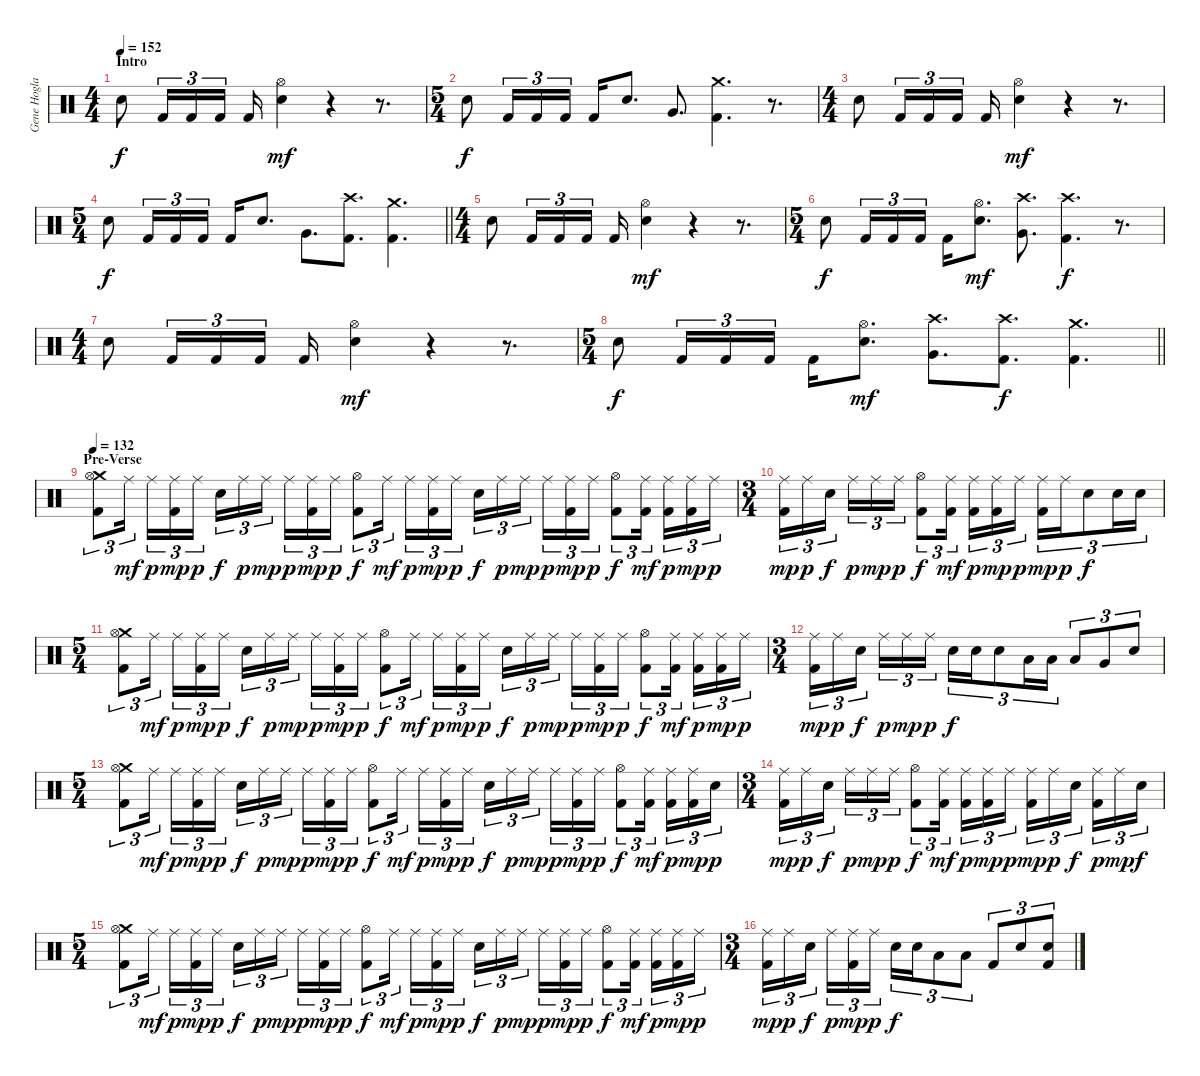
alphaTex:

\track ("Gene Hoglan" "Gene Hogla") {instrument percussion}
\staff {score}
\articulation defaults
\ts (4 4)
\section ("" "Intro")
\tempo 152
\clef neutral
\ks c "Electric Snare (hit)".8{dy f} "Kick (hit) 2".16{tu (3 2)} "Kick (hit) 2".16{tu (3 2)} "Kick (hit) 2".16{tu (3 2)} "Kick (hit) 2".16
("Hi-Hat (open)" "Electric Snare (hit)").4{dy mf} r.4 r.8{d} |
\ts (5 4)
"Electric Snare (hit)".8{dy f} "Kick (hit) 2".16{tu (3 2)} "Kick (hit) 2".16{tu (3 2)} "Kick (hit) 2".16{tu (3 2)} "Kick (hit) 2".16 "Electric Snare (hit)".8{d} "Very Low Tom (hit)".8{d} ("Crash medium (hit)" "Kick (hit) 2").4{d} r.8{d} |
\ts (4 4)
"Electric Snare (hit)".8 "Kick (hit) 2".16{tu (3 2)} "Kick (hit) 2".16{tu (3 2)} "Kick (hit) 2".16{tu (3 2)} "Kick (hit) 2".16 ("Hi-Hat (open)" "Electric Snare (hit)").4{dy mf} r.4 r.8{d} |
\ts (5 4)
\barLineRight lightlight "Electric Snare (hit)".8{dy f} "Kick (hit) 2".16{tu (3 2)} "Kick (hit) 2".16{tu (3 2)} "Kick (hit) 2".16{tu (3 2)} "Kick (hit) 2".16 "Electric Snare (hit)".8{d} "Very Low Tom (hit)".8{d}
("Crash high (hit)" "Kick (hit) 2").8{d} ("Crash medium (hit)" "Kick (hit) 2").4{d} |
\ts (4 4)
"Electric Snare (hit)".8 "Kick (hit) 2".16{tu (3 2)} "Kick (hit) 2".16{tu (3 2)} "Kick (hit) 2".16{tu (3 2)} "Kick (hit) 2".16 ("Hi-Hat (open)" "Electric Snare (hit)").4{dy mf} r.4 r.8{d} |
\ts (5 4)
"Electric Snare (hit)".8{dy f} "Kick (hit) 2".16{tu (3 2)} "Kick (hit) 2".16{tu (3 2)} "Kick (hit) 2".16{tu (3 2)} "Kick (hit) 2".16 ("Hi-Hat (open)" "Electric Snare (hit)").8{d dy mf} ("Crash high (hit)" "Very Low Tom (hit)").8{d} ("Crash high (hit)" "Kick (hit) 2").4{d dy f} r.8{d} |
\ts (4 4)
"Electric Snare (hit)".8 "Kick (hit) 2".16{tu (3 2)} "Kick (hit) 2".16{tu (3 2)} "Kick (hit) 2".16{tu (3 2)} "Kick (hit) 2".16 ("Hi-Hat (open)" "Electric Snare (hit)").4{dy mf} r.4 r.8{d} |
\ts (5 4)
\barLineRight lightlight "Electric Snare (hit)".8{dy f} "Kick (hit) 2".16{tu (3 2)} "Kick (hit) 2".16{tu (3 2)} "Kick (hit) 2".16{tu (3 2)} "Kick (hit) 2".16
("Hi-Hat (open)" "Electric Snare (hit)").8{d dy mf} ("Crash high (hit)" "Very Low Tom (hit)").8{d} ("Crash high (hit)" "Kick (hit) 2").8{d dy f} ("Crash medium (hit)" "Kick (hit) 2").4{d} |
\section ("" "Pre-Verse")
\tempo 132
("Crash medium (hit)" "Hi-Hat (open)" "Kick (hit) 2").8{tu (3 2)} "Ride (middle)".16{tu (3 2) dy mf beam splitsecondary} "Ride (middle)".16{tu (3 2) dy p} ("Ride (middle)" "Kick (hit) 2").16{tu (3 2) dy mp} "Ride (middle)".16{tu (3 2) dy p} "Electric Snare (hit)".16{tu (3 2) dy f} "Ride (middle)".16{tu (3 2) dy p} "Ride (middle)".16{tu (3 2) dy mp beam splitsecondary} "Ride (middle)".16{tu (3 2) dy p} ("Ride (middle)" "Kick (hit) 2").16{tu (3 2) dy mp} "Ride (middle)".16{tu (3 2) dy p} ("Hi-Hat (open)" "Kick (hit) 2").8{tu (3 2) dy f} "Ride (middle)".16{tu (3 2) dy mf beam splitsecondary} "Ride (middle)".16{tu (3 2) dy p} ("Ride (middle)" "Kick (hit) 2").16{tu (3 2) dy mp} "Ride (middle)".16{tu (3 2) dy p} "Electric Snare (hit)".16{tu (3 2) dy f} "Ride (middle)".16{tu (3 2) dy p} "Ride (middle)".16{tu (3 2) dy mp beam splitsecondary} "Ride (middle)".16{tu (3 2) dy p} ("Ride (middle)" "Kick (hit) 2").16{tu (3 2) dy mp} "Ride (middle)".16{tu (3 2) dy p} ("Hi-Hat (open)" "Kick (hit) 2").8{tu (3 2) dy f} ("Ride (middle)" "Kick (hit) 2").16{tu (3 2) dy mf beam splitsecondary} ("Ride (middle)" "Kick (hit) 2").16{tu (3 2) dy p} ("Ride (middle)" "Kick (hit) 2").16{tu (3 2) dy mp} "Ride (middle)".16{tu (3 2) dy p} |
\ts (3 4)
("Ride (middle)" "Kick (hit) 2").16{tu (3 2) dy mp} "Ride (middle)".16{tu (3 2) dy p} "Electric Snare (hit)".16{tu (3 2) dy f beam splitsecondary} "Ride (middle)".16{tu (3 2) dy p} "Ride (middle)".16{tu (3 2) dy mp} "Ride (middle)".16{tu (3 2) dy p} ("Hi-Hat (open)" "Kick (hit) 2").8{tu (3 2) dy f} ("Ride (middle)" "Kick (hit) 2").16{tu (3 2) dy mf beam splitsecondary} ("Ride (middle)" "Kick (hit) 2").16{tu (3 2) dy p} ("Ride (middle)" "Kick (hit) 2").16{tu (3 2) dy mp} "Ride (middle)".16{tu (3 2) dy p} ("Ride (middle)" "Kick (hit) 2").16{tu (3 2) dy mp} "Ride (middle)".16{tu (3 2) dy p} "Electric Snare (hit)".8{tu (3 2) dy f} "Electric Snare (hit)".16{tu (3 2)} "Electric Snare (hit)".16{tu (3 2)} |
\ts (5 4)
("Crash medium (hit)" "Hi-Hat (open)" "Kick (hit) 2").8{tu (3 2)} "Ride (middle)".16{tu (3 2) dy mf beam splitsecondary} "Ride (middle)".16{tu (3 2) dy p} ("Ride (middle)" "Kick (hit) 2").16{tu (3 2) dy mp} "Ride (middle)".16{tu (3 2) dy p} "Electric Snare (hit)".16{tu (3 2) dy f} "Ride (middle)".16{tu (3 2) dy p} "Ride (middle)".16{tu (3 2) dy mp beam splitsecondary} "Ride (middle)".16{tu (3 2) dy p} ("Ride (middle)" "Kick (hit) 2").16{tu (3 2) dy mp} "Ride (middle)".16{tu (3 2) dy p} ("Hi-Hat (open)" "Kick (hit) 2").8{tu (3 2) dy f} "Ride (middle)".16{tu (3 2) dy mf beam splitsecondary} "Ride (middle)".16{tu (3 2) dy p} ("Ride (middle)" "Kick (hit) 2").16{tu (3 2) dy mp} "Ride (middle)".16{tu (3 2) dy p} "Electric Snare (hit)".16{tu (3 2) dy f} "Ride (middle)".16{tu (3 2) dy p} "Ride (middle)".16{tu (3 2) dy mp beam splitsecondary} "Ride (middle)".16{tu (3 2) dy p} ("Ride (middle)" "Kick (hit) 2").16{tu (3 2) dy mp} "Ride (middle)".16{tu (3 2) dy p} ("Hi-Hat (open)" "Kick (hit) 2").8{tu (3 2) dy f} ("Ride (middle)" "Kick (hit) 2").16{tu (3 2) dy mf beam splitsecondary} ("Ride (middle)" "Kick (hit) 2").16{tu (3 2) dy p} ("Ride (middle)" "Kick (hit) 2").16{tu (3 2) dy mp} "Ride (middle)".16{tu (3 2) dy p} |
\ts (3 4)
("Ride (middle)" "Kick (hit) 2").16{tu (3 2) dy mp} "Ride (middle)".16{tu (3 2) dy p} "Electric Snare (hit)".16{tu (3 2) dy f beam splitsecondary} "Ride (middle)".16{tu (3 2) dy p} "Ride (middle)".16{tu (3 2) dy mp} "Ride (middle)".16{tu (3 2) dy p} "Electric Snare (hit)".16{tu (3 2) dy f} "Electric Snare (hit)".16{tu (3 2)} "Electric Snare (hit)".8{tu (3 2)} "Low Tom (hit)".16{tu (3 2)} "Low Tom (hit)".16{tu (3 2)} "Low Tom (hit)".8{tu (3 2)} "Very Low Tom (hit)".8{tu (3 2)} "Electric Snare (hit)".8{tu (3 2)} |
\ts (5 4)
("Crash medium (hit)" "Hi-Hat (open)" "Kick (hit) 2").8{tu (3 2)} "Ride (middle)".16{tu (3 2) dy mf beam splitsecondary} "Ride (middle)".16{tu (3 2) dy p} ("Ride (middle)" "Kick (hit) 2").16{tu (3 2) dy mp} "Ride (middle)".16{tu (3 2) dy p} "Electric Snare (hit)".16{tu (3 2) dy f} "Ride (middle)".16{tu (3 2) dy p} "Ride (middle)".16{tu (3 2) dy mp beam splitsecondary} "Ride (middle)".16{tu (3 2) dy p} ("Ride (middle)" "Kick (hit) 2").16{tu (3 2) dy mp} "Ride (middle)".16{tu (3 2) dy p} ("Hi-Hat (open)" "Kick (hit) 2").8{tu (3 2) dy f} "Ride (middle)".16{tu (3 2) dy mf beam splitsecondary} "Ride (middle)".16{tu (3 2) dy p} ("Ride (middle)" "Kick (hit) 2").16{tu (3 2) dy mp} "Ride (middle)".16{tu (3 2) dy p} "Electric Snare (hit)".16{tu (3 2) dy f} "Ride (middle)".16{tu (3 2) dy p} "Ride (middle)".16{tu (3 2) dy mp beam splitsecondary} "Ride (middle)".16{tu (3 2) dy p} ("Ride (middle)" "Kick (hit) 2").16{tu (3 2) dy mp} "Ride (middle)".16{tu (3 2) dy p} ("Hi-Hat (open)" "Kick (hit) 2").8{tu (3 2) dy f} ("Ride (middle)" "Kick (hit) 2").16{tu (3 2) dy mf beam splitsecondary} ("Ride (middle)" "Kick (hit) 2").16{tu (3 2) dy p} ("Ride (middle)" "Kick (hit) 2").16{tu (3 2) dy mp} "Snare (hit)".16{tu (3 2) dy p} |
\ts (3 4)
("Ride (middle)" "Kick (hit) 2").16{tu (3 2) dy mp} "Ride (middle)".16{tu (3 2) dy p} "Electric Snare (hit)".16{tu (3 2) dy f beam splitsecondary} "Ride (middle)".16{tu (3 2) dy p} "Ride (middle)".16{tu (3 2) dy mp} "Ride (middle)".16{tu (3 2) dy p} ("Hi-Hat (open)" "Kick (hit) 2").8{tu (3 2) dy f} ("Ride (middle)" "Kick (hit) 2").16{tu (3 2) dy mf beam splitsecondary} ("Ride (middle)" "Kick (hit) 2").16{tu (3 2) dy p} ("Ride (middle)" "Kick (hit) 2").16{tu (3 2) dy mp} "Ride (middle)".16{tu (3 2) dy p} ("Ride (middle)" "Kick (hit) 2").16{tu (3 2) dy mp} "Ride (middle)".16{tu (3 2) dy p} "Electric Snare (hit)".16{tu (3 2) dy f beam splitsecondary} ("Ride (middle)" "Kick (hit) 2").16{tu (3 2) dy p} "Ride (middle)".16{tu (3 2) dy mp} "Electric Snare (hit)".16{tu (3 2) dy f} |
\ts (5 4)
("Crash medium (hit)" "Hi-Hat (open)" "Kick (hit) 2").8{tu (3 2)} "Ride (middle)".16{tu (3 2) dy mf beam splitsecondary} "Ride (middle)".16{tu (3 2) dy p} ("Ride (middle)" "Kick (hit) 2").16{tu (3 2) dy mp} "Ride (middle)".16{tu (3 2) dy p} "Electric Snare (hit)".16{tu (3 2) dy f} "Ride (middle)".16{tu (3 2) dy p} "Ride (middle)".16{tu (3 2) dy mp beam splitsecondary} "Ride (middle)".16{tu (3 2) dy p} ("Ride (middle)" "Kick (hit) 2").16{tu (3 2) dy mp} "Ride (middle)".16{tu (3 2) dy p} ("Hi-Hat (open)" "Kick (hit) 2").8{tu (3 2) dy f} "Ride (middle)".16{tu (3 2) dy mf beam splitsecondary} "Ride (middle)".16{tu (3 2) dy p} ("Ride (middle)" "Kick (hit) 2").16{tu (3 2) dy mp} "Ride (middle)".16{tu (3 2) dy p} "Electric Snare (hit)".16{tu (3 2) dy f} "Ride (middle)".16{tu (3 2) dy p} "Ride (middle)".16{tu (3 2) dy mp beam splitsecondary} "Ride (middle)".16{tu (3 2) dy p} ("Ride (middle)" "Kick (hit) 2").16{tu (3 2) dy mp} "Ride (middle)".16{tu (3 2) dy p} ("Hi-Hat (open)" "Kick (hit) 2").8{tu (3 2) dy f} ("Ride (middle)" "Kick (hit) 2").16{tu (3 2) dy mf beam splitsecondary} ("Ride (middle)" "Kick (hit) 2").16{tu (3 2) dy p} ("Ride (middle)" "Kick (hit) 2").16{tu (3 2) dy mp} "Ride (middle)".16{tu (3 2) dy p} |
\ts (3 4)
("Ride (middle)" "Kick (hit) 2").16{tu (3 2) dy mp} "Ride (middle)".16{tu (3 2) dy p} "Electric Snare (hit)".16{tu (3 2) dy f beam splitsecondary} "Ride (middle)".16{tu (3 2) dy p} ("Ride (middle)" "Kick (hit) 2").16{tu (3 2) dy mp} "Ride (middle)".16{tu (3 2) dy p} "Electric Snare (hit)".16{tu (3 2) dy f} "Electric Snare (hit)".16{tu (3 2)} "Low Tom (hit)".8{tu (3 2)} "Low Tom (hit)".8{tu (3 2)} "Kick (hit) 2".8{tu (3 2)} "Electric Snare (hit)".8{tu (3 2)} ("Electric Snare (hit)" "Kick (hit) 2").8{tu (3 2)}
